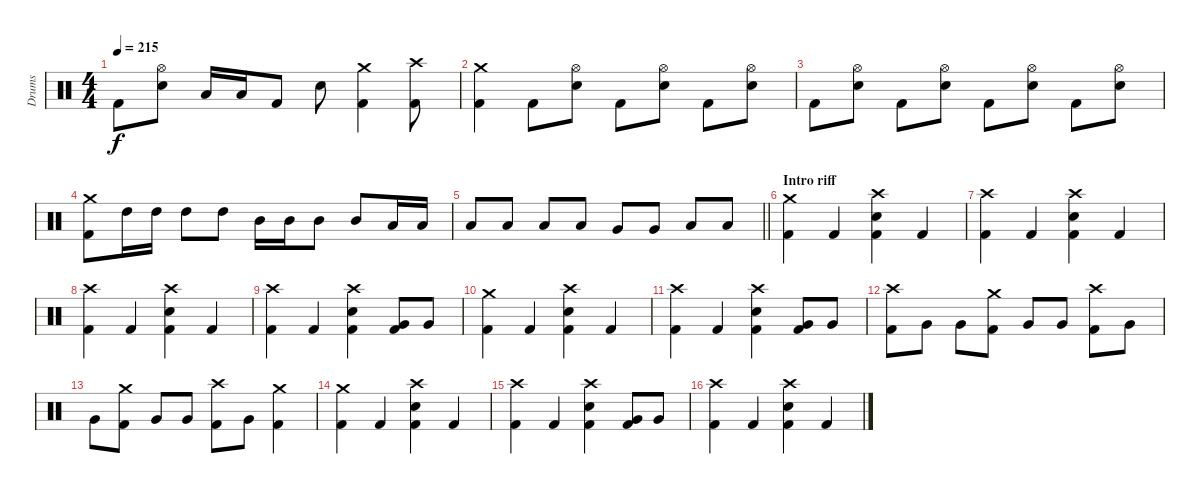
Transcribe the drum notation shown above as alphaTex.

\track ("Drums" "Drums") {instrument percussion}
\staff {score}
\articulation defaults
\ts (4 4)
\tempo 215
\clef neutral
\ks c "Kick (hit) 2".8{dy f}
("Hi-Hat (open)" "Electric Snare (hit)").8 "Low Tom (hit)".16 "Low Tom (hit)".16 "Kick (hit) 2".8 "Electric Snare (hit)".8 ("Kick (hit) 2" "Crash medium (hit)").4 ("Kick (hit) 2" "Crash high (hit)").8 |
("Crash medium (hit)" "Kick (hit) 2").4 "Kick (hit) 2".8 ("Hi-Hat (open)" "Electric Snare (hit)").8 "Kick (hit) 2".8 ("Hi-Hat (open)" "Electric Snare (hit)").8 "Kick (hit) 2".8 ("Electric Snare (hit)" "Hi-Hat (open)").8 |
"Kick (hit) 2".8 ("Hi-Hat (open)" "Electric Snare (hit)").8 "Kick (hit) 2".8 ("Electric Snare (hit)" "Hi-Hat (open)").8 "Kick (hit) 2".8 ("Hi-Hat (open)" "Electric Snare (hit)").8 "Kick (hit) 2".8 ("Electric Snare (hit)" "Hi-Hat (open)").8 |
("Crash medium (hit)" "Kick (hit) 2").8 "High Tom (hit)".16 "High Tom (hit)".16 "High Tom (hit)".8 "High Tom (hit)".8 "Mid Tom (hit)".16 "Mid Tom (hit)".16 "Mid Tom (hit)".8 "Mid Tom (hit)".8 "Low Tom (hit)".16 "Low Tom (hit)".16 |
\barLineRight lightlight "Low Tom (hit)".8 "Low Tom (hit)".8 "Low Tom (hit)".8 "Low Tom (hit)".8 "Very Low Tom (hit)".8 "Very Low Tom (hit)".8 "Low Floor Tom (hit)".8 "Low Floor Tom (hit)".8
|
\section ("" "Intro riff")
("Kick (hit) 2" "Crash medium (hit)").4 "Kick (hit) 2".4 ("Kick (hit) 2" "Electric Snare (hit)" "Crash high (hit)").4 "Kick (hit) 2".4 |
("Kick (hit) 2" "Crash high (hit)").4 "Kick (hit) 2".4 ("Kick (hit) 2" "Electric Snare (hit)" "Crash high (hit)").4 "Kick (hit) 2".4 |
("Kick (hit) 2" "Crash high (hit)").4 "Kick (hit) 2".4 ("Kick (hit) 2" "Electric Snare (hit)" "Crash high (hit)").4 "Kick (hit) 2".4 |
("Kick (hit) 2" "Crash high (hit)").4 "Kick (hit) 2".4 ("Kick (hit) 2" "Electric Snare (hit)" "Crash high (hit)").4 ("Kick (hit) 2" "Very Low Tom (hit)").8 "Very Low Tom (hit)".8 |
("Kick (hit) 2" "Crash medium (hit)").4 "Kick (hit) 2".4 ("Kick (hit) 2" "Electric Snare (hit)" "Crash high (hit)").4 "Kick (hit) 2".4 |
("Kick (hit) 2" "Crash high (hit)").4 "Kick (hit) 2".4 ("Kick (hit) 2" "Electric Snare (hit)" "Crash high (hit)").4 ("Kick (hit) 2" "Very Low Tom (hit)").8 "Very Low Tom (hit)".8 |
("Kick (hit) 2" "Crash high (hit)").8 "Very Low Tom (hit)".8 "Very Low Tom (hit)".8 ("Kick (hit) 2" "Crash medium (hit)").8 "Very Low Tom (hit)".8 "Very Low Tom (hit)".8 ("Kick (hit) 2" "Crash high (hit)").8 "Very Low Tom (hit)".8 |
"Very Low Tom (hit)".8 ("Kick (hit) 2" "Crash medium (hit)").8 "Very Low Tom (hit)".8 "Very Low Tom (hit)".8 ("Kick (hit) 2" "Crash high (hit)").8 "Very Low Tom (hit)".8 ("Kick (hit) 2" "Crash medium (hit)").4 |
("Kick (hit) 2" "Crash medium (hit)").4 "Kick (hit) 2".4 ("Kick (hit) 2" "Electric Snare (hit)" "Crash high (hit)").4 "Kick (hit) 2".4 |
("Kick (hit) 2" "Crash high (hit)").4 "Kick (hit) 2".4 ("Kick (hit) 2" "Electric Snare (hit)" "Crash high (hit)").4 ("Kick (hit) 2" "Very Low Tom (hit)").8 "Very Low Tom (hit)".8 |
("Kick (hit) 2" "Crash high (hit)").4 "Kick (hit) 2".4 ("Kick (hit) 2" "Electric Snare (hit)" "Crash high (hit)").4 "Kick (hit) 2".4
